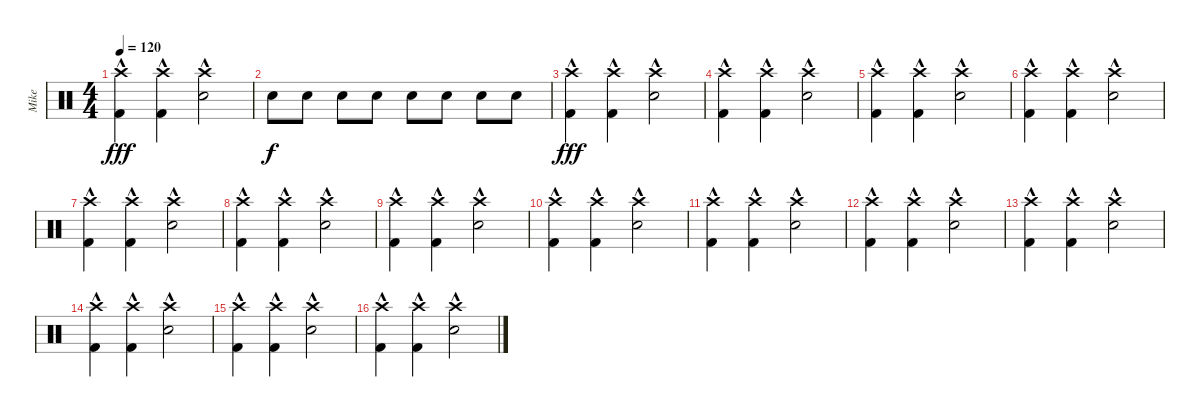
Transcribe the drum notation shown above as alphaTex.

\track ("Mike" "Mike") {instrument percussion}
\staff {score}
\articulation defaults
\ts (4 4)
\tempo 120
\clef neutral
\ks c
("Crash high (hit)"{hac} "Kick (hit) 2"{hac}).4{dy fff} ("Crash high (hit)"{hac} "Kick (hit) 2"{hac}).4 ("Crash high (hit)"{hac} "Electric Snare (hit)"{hac}).2 |
"Electric Snare (hit)".8{dy f} "Electric Snare (hit)".8 "Electric Snare (hit)".8 "Electric Snare (hit)".8 "Electric Snare (hit)".8 "Electric Snare (hit)".8 "Electric Snare (hit)".8 "Electric Snare (hit)".8 |
("Crash high (hit)"{hac} "Kick (hit) 2"{hac}).4{dy fff} ("Crash high (hit)"{hac} "Kick (hit) 2"{hac}).4 ("Crash high (hit)"{hac} "Electric Snare (hit)"{hac}).2 |
("Crash high (hit)"{hac} "Kick (hit) 2"{hac}).4 ("Crash high (hit)"{hac} "Kick (hit) 2"{hac}).4 ("Crash high (hit)"{hac} "Electric Snare (hit)"{hac}).2 |
("Crash high (hit)"{hac} "Kick (hit) 2"{hac}).4 ("Crash high (hit)"{hac} "Kick (hit) 2"{hac}).4 ("Crash high (hit)"{hac} "Electric Snare (hit)"{hac}).2 |
("Crash high (hit)"{hac} "Kick (hit) 2"{hac}).4 ("Crash high (hit)"{hac} "Kick (hit) 2"{hac}).4 ("Crash high (hit)"{hac} "Electric Snare (hit)"{hac}).2 |
("Crash high (hit)"{hac} "Kick (hit) 2"{hac}).4 ("Crash high (hit)"{hac} "Kick (hit) 2"{hac}).4 ("Crash high (hit)"{hac} "Electric Snare (hit)"{hac}).2 |
("Crash high (hit)"{hac} "Kick (hit) 2"{hac}).4 ("Crash high (hit)"{hac} "Kick (hit) 2"{hac}).4 ("Crash high (hit)"{hac} "Electric Snare (hit)"{hac}).2 |
("Crash high (hit)"{hac} "Kick (hit) 2"{hac}).4 ("Crash high (hit)"{hac} "Kick (hit) 2"{hac}).4 ("Crash high (hit)"{hac} "Electric Snare (hit)"{hac}).2 |
("Crash high (hit)"{hac} "Kick (hit) 2"{hac}).4 ("Crash high (hit)"{hac} "Kick (hit) 2"{hac}).4 ("Crash high (hit)"{hac} "Electric Snare (hit)"{hac}).2 |
("Crash high (hit)"{hac} "Kick (hit) 2"{hac}).4 ("Crash high (hit)"{hac} "Kick (hit) 2"{hac}).4 ("Crash high (hit)"{hac} "Electric Snare (hit)"{hac}).2 |
("Crash high (hit)"{hac} "Kick (hit) 2"{hac}).4 ("Crash high (hit)"{hac} "Kick (hit) 2"{hac}).4 ("Crash high (hit)"{hac} "Electric Snare (hit)"{hac}).2 |
("Crash high (hit)"{hac} "Kick (hit) 2"{hac}).4 ("Crash high (hit)"{hac} "Kick (hit) 2"{hac}).4 ("Crash high (hit)"{hac} "Electric Snare (hit)"{hac}).2 |
("Crash high (hit)"{hac} "Kick (hit) 2"{hac}).4 ("Crash high (hit)"{hac} "Kick (hit) 2"{hac}).4 ("Crash high (hit)"{hac} "Electric Snare (hit)"{hac}).2 |
("Crash high (hit)"{hac} "Kick (hit) 2"{hac}).4 ("Crash high (hit)"{hac} "Kick (hit) 2"{hac}).4 ("Crash high (hit)"{hac} "Electric Snare (hit)"{hac}).2 |
("Crash high (hit)"{hac} "Kick (hit) 2"{hac}).4 ("Crash high (hit)"{hac} "Kick (hit) 2"{hac}).4 ("Crash high (hit)"{hac} "Electric Snare (hit)"{hac}).2
